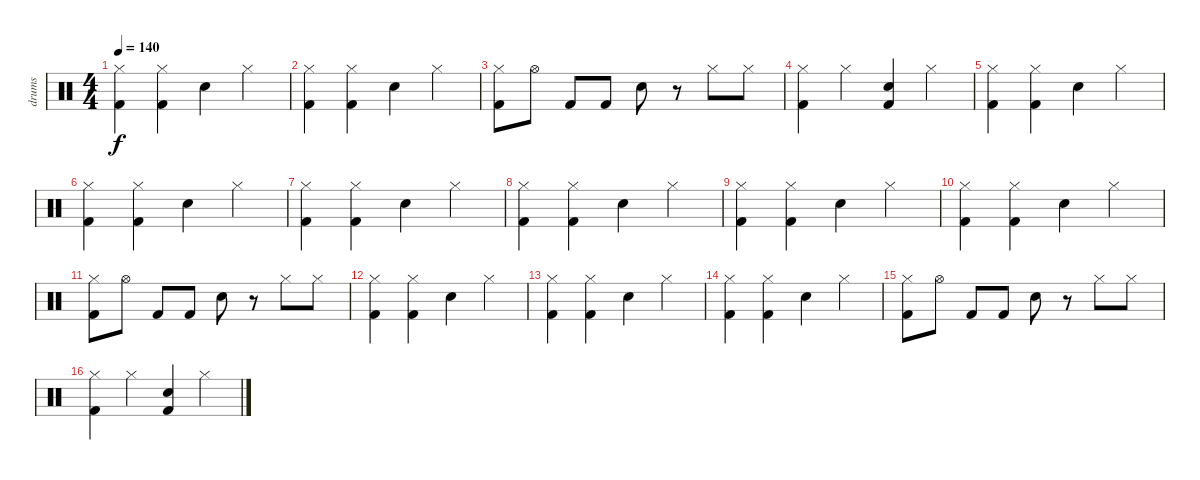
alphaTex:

\track ("drums" "drums") {instrument percussion}
\staff {score}
\articulation defaults
\ts (4 4)
\tempo 140
\clef neutral
\ks c
("Hi-Hat (closed)" "Kick (hit) 2").4{dy f} ("Hi-Hat (closed)" "Kick (hit) 2").4 "Snare (hit) 2".4 "Hi-Hat (closed)".4 |
("Hi-Hat (closed)" "Kick (hit) 2").4 ("Hi-Hat (closed)" "Kick (hit) 2").4 "Snare (hit) 2".4 "Hi-Hat (closed)".4 |
("Hi-Hat (closed)" "Kick (hit) 2").8 "Hi-Hat (open)".8 "Kick (hit) 2".8 "Kick (hit) 2".8 "Snare (hit) 2".8 r.8 "Hi-Hat (closed)".8 "Hi-Hat (closed)".8 |
("Hi-Hat (closed)" "Kick (hit) 2").4 "Hi-Hat (closed)".4 ("Snare (hit) 2" "Kick (hit) 2").4 "Hi-Hat (closed)".4 |
("Hi-Hat (closed)" "Kick (hit) 2").4 ("Hi-Hat (closed)" "Kick (hit) 2").4 "Snare (hit) 2".4 "Hi-Hat (closed)".4 |
("Hi-Hat (closed)" "Kick (hit) 2").4 ("Hi-Hat (closed)" "Kick (hit) 2").4 "Snare (hit) 2".4 "Hi-Hat (closed)".4 |
("Hi-Hat (closed)" "Kick (hit) 2").4 ("Hi-Hat (closed)" "Kick (hit) 2").4 "Snare (hit) 2".4 "Hi-Hat (closed)".4 |
("Hi-Hat (closed)" "Kick (hit) 2").4 ("Hi-Hat (closed)" "Kick (hit) 2").4 "Snare (hit) 2".4 "Hi-Hat (closed)".4 |
("Hi-Hat (closed)" "Kick (hit) 2").4 ("Hi-Hat (closed)" "Kick (hit) 2").4 "Snare (hit) 2".4 "Hi-Hat (closed)".4 |
("Hi-Hat (closed)" "Kick (hit) 2").4 ("Hi-Hat (closed)" "Kick (hit) 2").4 "Snare (hit) 2".4 "Hi-Hat (closed)".4 |
("Hi-Hat (closed)" "Kick (hit) 2").8 "Hi-Hat (open)".8 "Kick (hit) 2".8 "Kick (hit) 2".8 "Snare (hit) 2".8 r.8 "Hi-Hat (closed)".8 "Hi-Hat (closed)".8 |
("Hi-Hat (closed)" "Kick (hit) 2").4 ("Hi-Hat (closed)" "Kick (hit) 2").4 "Snare (hit) 2".4 "Hi-Hat (closed)".4 |
("Hi-Hat (closed)" "Kick (hit) 2").4 ("Hi-Hat (closed)" "Kick (hit) 2").4 "Snare (hit) 2".4 "Hi-Hat (closed)".4 |
("Hi-Hat (closed)" "Kick (hit) 2").4 ("Hi-Hat (closed)" "Kick (hit) 2").4 "Snare (hit) 2".4 "Hi-Hat (closed)".4 |
("Hi-Hat (closed)" "Kick (hit) 2").8 "Hi-Hat (open)".8 "Kick (hit) 2".8 "Kick (hit) 2".8 "Snare (hit) 2".8 r.8 "Hi-Hat (closed)".8 "Hi-Hat (closed)".8 |
("Hi-Hat (closed)" "Kick (hit) 2").4 "Hi-Hat (closed)".4 ("Snare (hit) 2" "Kick (hit) 2").4 "Hi-Hat (closed)".4
